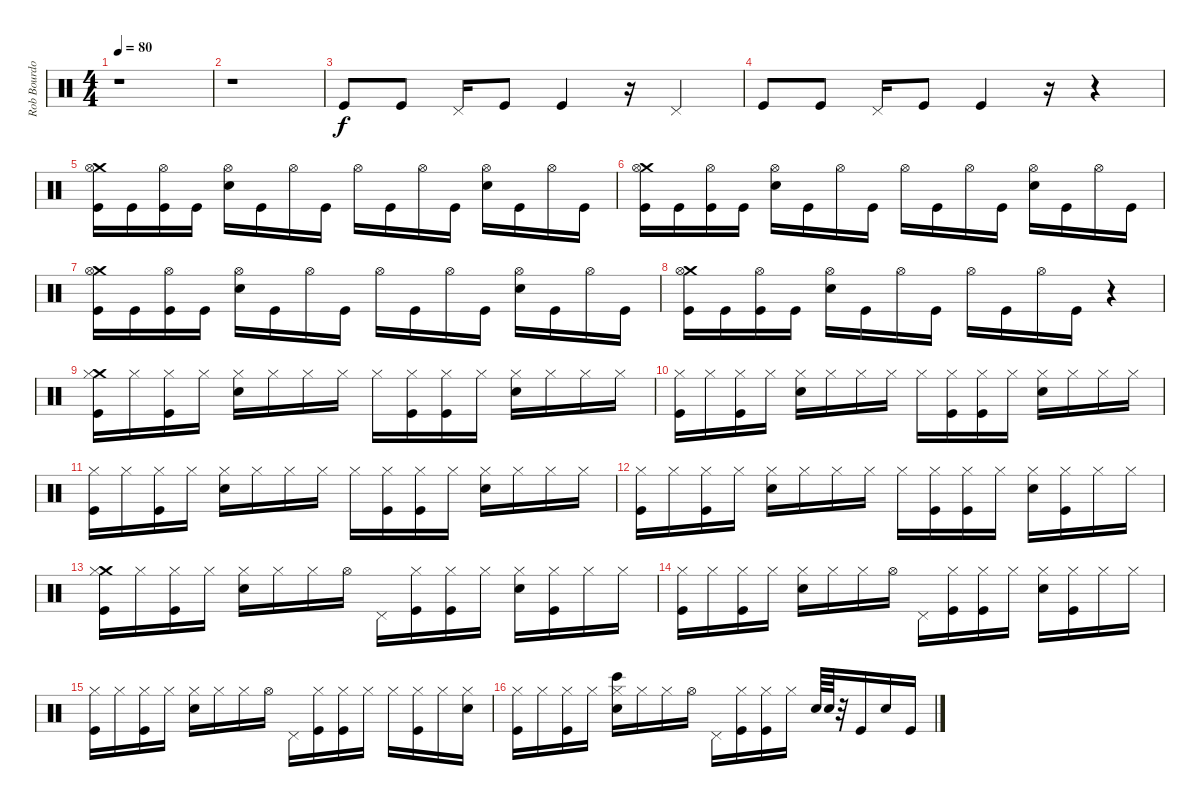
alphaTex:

\track ("Rob Bourdon" "Rob Bourdo") {instrument percussion}
\staff {score}
\articulation defaults
\ts (4 4)
\tempo 80
\clef neutral
\ks c
r.1{dy f} |
r.1 |
"Kick (hit)".8 "Kick (hit)".8 "Pedal Hi-Hat (hit)".16 "Kick (hit)".8 "Kick (hit)".4 r.16 "Pedal Hi-Hat (hit)".4 |
"Kick (hit)".8 "Kick (hit)".8 "Pedal Hi-Hat (hit)".16 "Kick (hit)".8 "Kick (hit)".4 r.16 r.4 |
("Crash medium (hit)" "Hi-Hat (open)" "Kick (hit)").16 "Kick (hit)".16 ("Hi-Hat (open)" "Kick (hit)").16 "Kick (hit)".16 ("Hi-Hat (open)" "Snare (hit) 2").16 "Kick (hit)".16 "Hi-Hat (open)".16 "Kick (hit)".16 "Hi-Hat (open)".16 "Kick (hit)".16 "Hi-Hat (open)".16 "Kick (hit)".16 ("Hi-Hat (open)" "Snare (hit) 2").16 "Kick (hit)".16 "Hi-Hat (open)".16 "Kick (hit)".16 |
("Crash medium (hit)" "Hi-Hat (open)" "Kick (hit)").16 "Kick (hit)".16 ("Hi-Hat (open)" "Kick (hit)").16 "Kick (hit)".16 ("Hi-Hat (open)" "Snare (hit) 2").16 "Kick (hit)".16 "Hi-Hat (open)".16 "Kick (hit)".16 "Hi-Hat (open)".16 "Kick (hit)".16 "Hi-Hat (open)".16 "Kick (hit)".16 ("Hi-Hat (open)" "Snare (hit) 2").16 "Kick (hit)".16 "Hi-Hat (open)".16 "Kick (hit)".16 |
("Crash medium (hit)" "Hi-Hat (open)" "Kick (hit)").16 "Kick (hit)".16 ("Hi-Hat (open)" "Kick (hit)").16 "Kick (hit)".16 ("Hi-Hat (open)" "Snare (hit) 2").16 "Kick (hit)".16 "Hi-Hat (open)".16 "Kick (hit)".16 "Hi-Hat (open)".16 "Kick (hit)".16 "Hi-Hat (open)".16 "Kick (hit)".16 ("Hi-Hat (open)" "Snare (hit) 2").16 "Kick (hit)".16 "Hi-Hat (open)".16 "Kick (hit)".16 |
("Crash medium (hit)" "Hi-Hat (open)" "Kick (hit)").16 "Kick (hit)".16 ("Hi-Hat (open)" "Kick (hit)").16 "Kick (hit)".16 ("Hi-Hat (open)" "Snare (hit) 2").16 "Kick (hit)".16 "Hi-Hat (open)".16 "Kick (hit)".16 "Hi-Hat (open)".16 "Kick (hit)".16 "Hi-Hat (open)".16 "Kick (hit)".16 r.4 |
("Crash medium (hit)" "Hi-Hat (closed)" "Kick (hit)").16 "Hi-Hat (closed)".16 ("Hi-Hat (closed)" "Kick (hit)").16 "Hi-Hat (closed)".16 ("Hi-Hat (closed)" "Snare (hit) 2").16 "Hi-Hat (closed)".16 "Hi-Hat (closed)".16 "Hi-Hat (closed)".16 "Hi-Hat (closed)".16 ("Hi-Hat (closed)" "Kick (hit)").16 ("Hi-Hat (closed)" "Kick (hit)").16 "Hi-Hat (closed)".16 ("Hi-Hat (closed)" "Snare (hit) 2").16 "Hi-Hat (closed)".16 "Hi-Hat (closed)".16 "Hi-Hat (closed)".16 |
("Hi-Hat (closed)" "Kick (hit)").16 "Hi-Hat (closed)".16 ("Hi-Hat (closed)" "Kick (hit)").16 "Hi-Hat (closed)".16 ("Hi-Hat (closed)" "Snare (hit) 2").16 "Hi-Hat (closed)".16 "Hi-Hat (closed)".16 "Hi-Hat (closed)".16 "Hi-Hat (closed)".16 ("Hi-Hat (closed)" "Kick (hit)").16 ("Hi-Hat (closed)" "Kick (hit)").16 "Hi-Hat (closed)".16 ("Hi-Hat (closed)" "Snare (hit) 2").16 "Hi-Hat (closed)".16 "Hi-Hat (closed)".16 "Hi-Hat (closed)".16 |
("Hi-Hat (closed)" "Kick (hit)").16 "Hi-Hat (closed)".16 ("Hi-Hat (closed)" "Kick (hit)").16 "Hi-Hat (closed)".16 ("Hi-Hat (closed)" "Snare (hit) 2").16 "Hi-Hat (closed)".16 "Hi-Hat (closed)".16 "Hi-Hat (closed)".16 "Hi-Hat (closed)".16 ("Hi-Hat (closed)" "Kick (hit)").16 ("Hi-Hat (closed)" "Kick (hit)").16 "Hi-Hat (closed)".16 ("Hi-Hat (closed)" "Snare (hit) 2").16 "Hi-Hat (closed)".16 "Hi-Hat (closed)".16 "Hi-Hat (closed)".16 |
("Hi-Hat (closed)" "Kick (hit)").16 "Hi-Hat (closed)".16 ("Hi-Hat (closed)" "Kick (hit)").16 "Hi-Hat (closed)".16 ("Hi-Hat (closed)" "Snare (hit) 2").16 "Hi-Hat (closed)".16 "Hi-Hat (closed)".16 "Hi-Hat (closed)".16 "Hi-Hat (closed)".16 ("Hi-Hat (closed)" "Kick (hit)").16 ("Hi-Hat (closed)" "Kick (hit)").16 "Hi-Hat (closed)".16 ("Hi-Hat (closed)" "Snare (hit) 2").16 ("Hi-Hat (closed)" "Kick (hit)").16 "Hi-Hat (closed)".16 "Hi-Hat (closed)".16 |
("Crash medium (hit)" "Hi-Hat (closed)" "Kick (hit)").16 "Hi-Hat (closed)".16 ("Hi-Hat (closed)" "Kick (hit)").16 "Hi-Hat (closed)".16 ("Hi-Hat (closed)" "Snare (hit) 2").16 "Hi-Hat (closed)".16 "Hi-Hat (closed)".16 "Hi-Hat (open)".16 "Pedal Hi-Hat (hit)".16 ("Hi-Hat (closed)" "Kick (hit)").16 ("Hi-Hat (closed)" "Kick (hit)").16 "Hi-Hat (closed)".16 ("Hi-Hat (closed)" "Snare (hit) 2").16 ("Hi-Hat (closed)" "Kick (hit)").16 "Hi-Hat (closed)".16 "Hi-Hat (closed)".16 |
("Hi-Hat (closed)" "Kick (hit)").16 "Hi-Hat (closed)".16 ("Hi-Hat (closed)" "Kick (hit)").16 "Hi-Hat (closed)".16 ("Hi-Hat (closed)" "Snare (hit) 2").16 "Hi-Hat (closed)".16 "Hi-Hat (closed)".16 "Hi-Hat (open)".16 "Pedal Hi-Hat (hit)".16 ("Hi-Hat (closed)" "Kick (hit)").16 ("Hi-Hat (closed)" "Kick (hit)").16 "Hi-Hat (closed)".16 ("Hi-Hat (closed)" "Snare (hit) 2").16 ("Hi-Hat (closed)" "Kick (hit)").16 "Hi-Hat (closed)".16 "Hi-Hat (closed)".16 |
("Hi-Hat (closed)" "Kick (hit)").16 "Hi-Hat (closed)".16 ("Hi-Hat (closed)" "Kick (hit)").16 "Hi-Hat (closed)".16 ("Hi-Hat (closed)" "Snare (hit) 2").16 "Hi-Hat (closed)".16 "Hi-Hat (closed)".16 "Hi-Hat (open)".16 "Pedal Hi-Hat (hit)".16 ("Hi-Hat (closed)" "Kick (hit)").16 ("Hi-Hat (closed)" "Kick (hit)").16 "Hi-Hat (closed)".16 "Hi-Hat (closed)".16 ("Hi-Hat (closed)" "Kick (hit)").16 "Hi-Hat (closed)".16 ("Hi-Hat (closed)" "Snare (hit) 2").16 |
("Hi-Hat (closed)" "Kick (hit)").16 "Hi-Hat (closed)".16 ("Hi-Hat (closed)" "Kick (hit)").16 "Hi-Hat (closed)".16 ("Hi-Hat (closed)" "Bongo High (hit)" "Snare (hit) 2").16 "Hi-Hat (closed)".16 "Hi-Hat (closed)".16 "Hi-Hat (open)".16 "Pedal Hi-Hat (hit)".16 ("Hi-Hat (closed)" "Kick (hit)").16 ("Hi-Hat (closed)" "Kick (hit)").16 "Hi-Hat (closed)".16 "Snare (hit) 2".64 "Snare (hit) 2".64 r.32 "Kick (hit)".16 "Snare (hit) 2".16 "Kick (hit)".16
